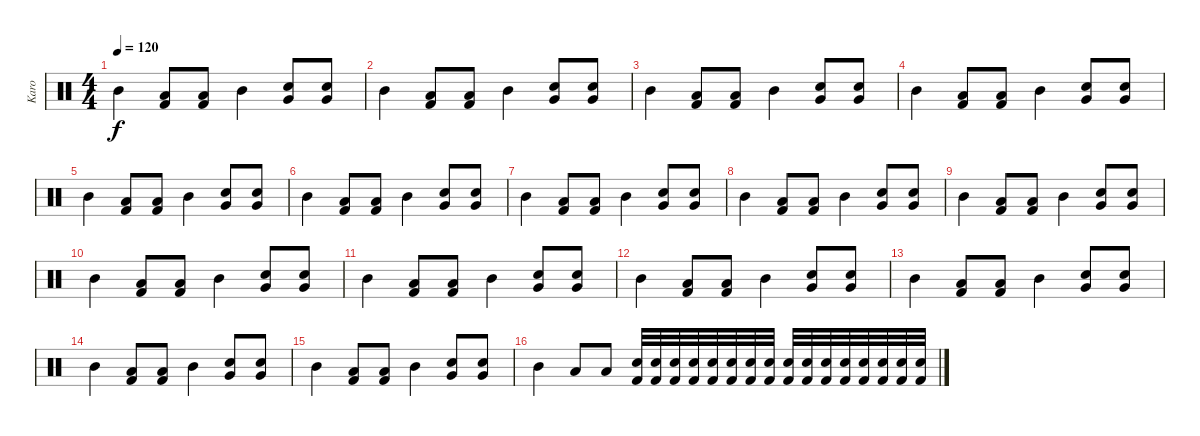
\track ("Karo" "Karo") {instrument percussion}
\staff {score}
\articulation defaults
\ts (4 4)
\tempo 120
\clef neutral
\ks c "Mid Tom (hit)".4{dy f}
("Kick (hit) 2" "Low Tom (hit)").8 ("Kick (hit) 2" "Low Tom (hit)").8 "Mid Tom (hit)".4 ("Electric Snare (hit)" "Very Low Tom (hit)").8 ("Electric Snare (hit)" "Very Low Tom (hit)").8 |
"Mid Tom (hit)".4 ("Kick (hit) 2" "Low Tom (hit)").8 ("Kick (hit) 2" "Low Tom (hit)").8 "Mid Tom (hit)".4 ("Electric Snare (hit)" "Very Low Tom (hit)").8 ("Electric Snare (hit)" "Very Low Tom (hit)").8 |
"Mid Tom (hit)".4 ("Kick (hit) 2" "Low Tom (hit)").8 ("Kick (hit) 2" "Low Tom (hit)").8 "Mid Tom (hit)".4 ("Electric Snare (hit)" "Very Low Tom (hit)").8 ("Electric Snare (hit)" "Very Low Tom (hit)").8 |
"Mid Tom (hit)".4 ("Kick (hit) 2" "Low Tom (hit)").8 ("Kick (hit) 2" "Low Tom (hit)").8 "Mid Tom (hit)".4 ("Electric Snare (hit)" "Very Low Tom (hit)").8 ("Electric Snare (hit)" "Very Low Tom (hit)").8 |
"Mid Tom (hit)".4 ("Kick (hit) 2" "Low Tom (hit)").8 ("Kick (hit) 2" "Low Tom (hit)").8 "Mid Tom (hit)".4 ("Electric Snare (hit)" "Very Low Tom (hit)").8 ("Electric Snare (hit)" "Very Low Tom (hit)").8 |
"Mid Tom (hit)".4 ("Kick (hit) 2" "Low Tom (hit)").8 ("Kick (hit) 2" "Low Tom (hit)").8 "Mid Tom (hit)".4 ("Electric Snare (hit)" "Very Low Tom (hit)").8 ("Electric Snare (hit)" "Very Low Tom (hit)").8 |
"Mid Tom (hit)".4 ("Kick (hit) 2" "Low Tom (hit)").8 ("Kick (hit) 2" "Low Tom (hit)").8 "Mid Tom (hit)".4 ("Electric Snare (hit)" "Very Low Tom (hit)").8 ("Electric Snare (hit)" "Very Low Tom (hit)").8 |
"Mid Tom (hit)".4 ("Kick (hit) 2" "Low Tom (hit)").8 ("Kick (hit) 2" "Low Tom (hit)").8 "Mid Tom (hit)".4 ("Electric Snare (hit)" "Very Low Tom (hit)").8 ("Electric Snare (hit)" "Very Low Tom (hit)").8 |
"Mid Tom (hit)".4 ("Kick (hit) 2" "Low Tom (hit)").8 ("Kick (hit) 2" "Low Tom (hit)").8 "Mid Tom (hit)".4 ("Electric Snare (hit)" "Very Low Tom (hit)").8 ("Electric Snare (hit)" "Very Low Tom (hit)").8 |
"Mid Tom (hit)".4 ("Kick (hit) 2" "Low Tom (hit)").8 ("Kick (hit) 2" "Low Tom (hit)").8 "Mid Tom (hit)".4 ("Electric Snare (hit)" "Very Low Tom (hit)").8 ("Electric Snare (hit)" "Very Low Tom (hit)").8 |
"Mid Tom (hit)".4 ("Kick (hit) 2" "Low Tom (hit)").8 ("Kick (hit) 2" "Low Tom (hit)").8 "Mid Tom (hit)".4 ("Very Low Tom (hit)" "Electric Snare (hit)").8 ("Very Low Tom (hit)" "Electric Snare (hit)").8 |
"Mid Tom (hit)".4 ("Kick (hit) 2" "Low Tom (hit)").8 ("Kick (hit) 2" "Low Tom (hit)").8 "Mid Tom (hit)".4 ("Electric Snare (hit)" "Very Low Tom (hit)").8 ("Electric Snare (hit)" "Very Low Tom (hit)").8 |
"Mid Tom (hit)".4 ("Kick (hit) 2" "Low Tom (hit)").8 ("Kick (hit) 2" "Low Tom (hit)").8 "Mid Tom (hit)".4 ("Electric Snare (hit)" "Very Low Tom (hit)").8 ("Electric Snare (hit)" "Very Low Tom (hit)").8 |
"Mid Tom (hit)".4 ("Kick (hit) 2" "Low Tom (hit)").8 ("Kick (hit) 2" "Low Tom (hit)").8 "Mid Tom (hit)".4 ("Electric Snare (hit)" "Very Low Tom (hit)").8 ("Electric Snare (hit)" "Very Low Tom (hit)").8 |
"Mid Tom (hit)".4 ("Kick (hit) 2" "Low Tom (hit)").8 ("Kick (hit) 2" "Low Tom (hit)").8 "Mid Tom (hit)".4 ("Electric Snare (hit)" "Very Low Tom (hit)").8 ("Electric Snare (hit)" "Very Low Tom (hit)").8 |
"Mid Tom (hit)".4 "Low Tom (hit)".8 "Low Tom (hit)".8 ("Kick (hit) 2" "Electric Snare (hit)").32 ("Kick (hit) 2" "Electric Snare (hit)").32 ("Kick (hit) 2" "Electric Snare (hit)").32 ("Kick (hit) 2" "Electric Snare (hit)").32 ("Kick (hit) 2" "Electric Snare (hit)").32 ("Kick (hit) 2" "Electric Snare (hit)").32 ("Kick (hit) 2" "Electric Snare (hit)").32 ("Kick (hit) 2" "Electric Snare (hit)").32 ("Kick (hit) 2" "Electric Snare (hit)").32 ("Kick (hit) 2" "Electric Snare (hit)").32 ("Kick (hit) 2" "Electric Snare (hit)").32 ("Kick (hit) 2" "Electric Snare (hit)").32 ("Kick (hit) 2" "Electric Snare (hit)").32 ("Kick (hit) 2" "Electric Snare (hit)").32 ("Kick (hit) 2" "Electric Snare (hit)").32 ("Kick (hit) 2" "Electric Snare (hit)").32
